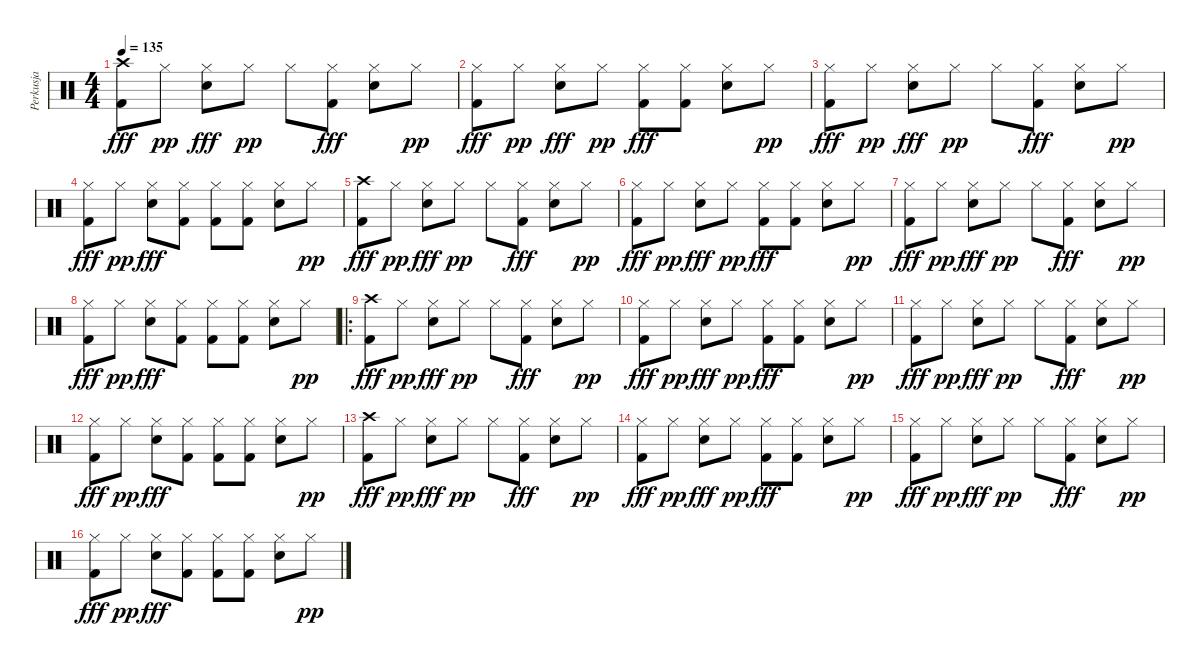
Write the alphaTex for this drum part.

\track ("Perkusja" "Perkusja") {instrument percussion}
\staff {score}
\articulation defaults
\ts (4 4)
\tempo 135
\clef neutral
\ks c
("Crash high (hit)" "Kick (hit) 2").8{dy fff} "Hi-Hat (closed)".8{dy pp} ("Hi-Hat (closed)" "Electric Snare (hit)").8{dy fff} "Hi-Hat (closed)".8{dy pp} "Hi-Hat (closed)".8 ("Hi-Hat (closed)" "Kick (hit) 2").8{dy fff} ("Hi-Hat (closed)" "Electric Snare (hit)").8 "Hi-Hat (closed)".8{dy pp} |
("Hi-Hat (closed)" "Kick (hit) 2").8{dy fff} "Hi-Hat (closed)".8{dy pp} ("Hi-Hat (closed)" "Electric Snare (hit)").8{dy fff} "Hi-Hat (closed)".8{dy pp} ("Hi-Hat (closed)" "Kick (hit) 2").8{dy fff} ("Hi-Hat (closed)" "Kick (hit) 2").8 ("Hi-Hat (closed)" "Electric Snare (hit)").8 "Hi-Hat (closed)".8{dy pp} |
("Hi-Hat (closed)" "Kick (hit) 2").8{dy fff} "Hi-Hat (closed)".8{dy pp} ("Hi-Hat (closed)" "Electric Snare (hit)").8{dy fff} "Hi-Hat (closed)".8{dy pp} "Hi-Hat (closed)".8 ("Hi-Hat (closed)" "Kick (hit) 2").8{dy fff} ("Hi-Hat (closed)" "Electric Snare (hit)").8 "Hi-Hat (closed)".8{dy pp} |
("Hi-Hat (closed)" "Kick (hit) 2").8{dy fff} "Hi-Hat (closed)".8{dy pp} ("Hi-Hat (closed)" "Electric Snare (hit)").8{dy fff} ("Hi-Hat (closed)" "Kick (hit) 2").8 ("Hi-Hat (closed)" "Kick (hit) 2").8 ("Hi-Hat (closed)" "Kick (hit) 2").8 ("Hi-Hat (closed)" "Electric Snare (hit)").8 "Hi-Hat (closed)".8{dy pp} |
("Crash high (hit)" "Kick (hit) 2").8{dy fff} "Hi-Hat (closed)".8{dy pp} ("Hi-Hat (closed)" "Electric Snare (hit)").8{dy fff} "Hi-Hat (closed)".8{dy pp} "Hi-Hat (closed)".8 ("Hi-Hat (closed)" "Kick (hit) 2").8{dy fff} ("Hi-Hat (closed)" "Electric Snare (hit)").8 "Hi-Hat (closed)".8{dy pp} |
("Hi-Hat (closed)" "Kick (hit) 2").8{dy fff} "Hi-Hat (closed)".8{dy pp} ("Hi-Hat (closed)" "Electric Snare (hit)").8{dy fff} "Hi-Hat (closed)".8{dy pp} ("Hi-Hat (closed)" "Kick (hit) 2").8{dy fff} ("Hi-Hat (closed)" "Kick (hit) 2").8 ("Hi-Hat (closed)" "Electric Snare (hit)").8 "Hi-Hat (closed)".8{dy pp} |
("Hi-Hat (closed)" "Kick (hit) 2").8{dy fff} "Hi-Hat (closed)".8{dy pp} ("Hi-Hat (closed)" "Electric Snare (hit)").8{dy fff} "Hi-Hat (closed)".8{dy pp} "Hi-Hat (closed)".8 ("Hi-Hat (closed)" "Kick (hit) 2").8{dy fff} ("Hi-Hat (closed)" "Electric Snare (hit)").8 "Hi-Hat (closed)".8{dy pp} |
("Hi-Hat (closed)" "Kick (hit) 2").8{dy fff} "Hi-Hat (closed)".8{dy pp} ("Hi-Hat (closed)" "Electric Snare (hit)").8{dy fff} ("Hi-Hat (closed)" "Kick (hit) 2").8 ("Hi-Hat (closed)" "Kick (hit) 2").8 ("Hi-Hat (closed)" "Kick (hit) 2").8 ("Hi-Hat (closed)" "Electric Snare (hit)").8 "Hi-Hat (closed)".8{dy pp} |
\ro
("Crash high (hit)" "Kick (hit) 2").8{dy fff} "Hi-Hat (closed)".8{dy pp} ("Hi-Hat (closed)" "Electric Snare (hit)").8{dy fff} "Hi-Hat (closed)".8{dy pp} "Hi-Hat (closed)".8 ("Hi-Hat (closed)" "Kick (hit) 2").8{dy fff} ("Hi-Hat (closed)" "Electric Snare (hit)").8 "Hi-Hat (closed)".8{dy pp} |
("Hi-Hat (closed)" "Kick (hit) 2").8{dy fff} "Hi-Hat (closed)".8{dy pp} ("Hi-Hat (closed)" "Electric Snare (hit)").8{dy fff} "Hi-Hat (closed)".8{dy pp} ("Hi-Hat (closed)" "Kick (hit) 2").8{dy fff} ("Hi-Hat (closed)" "Kick (hit) 2").8 ("Hi-Hat (closed)" "Electric Snare (hit)").8 "Hi-Hat (closed)".8{dy pp} |
("Hi-Hat (closed)" "Kick (hit) 2").8{dy fff} "Hi-Hat (closed)".8{dy pp} ("Hi-Hat (closed)" "Electric Snare (hit)").8{dy fff} "Hi-Hat (closed)".8{dy pp} "Hi-Hat (closed)".8 ("Hi-Hat (closed)" "Kick (hit) 2").8{dy fff} ("Hi-Hat (closed)" "Electric Snare (hit)").8 "Hi-Hat (closed)".8{dy pp} |
("Hi-Hat (closed)" "Kick (hit) 2").8{dy fff} "Hi-Hat (closed)".8{dy pp} ("Hi-Hat (closed)" "Electric Snare (hit)").8{dy fff} ("Hi-Hat (closed)" "Kick (hit) 2").8 ("Hi-Hat (closed)" "Kick (hit) 2").8 ("Hi-Hat (closed)" "Kick (hit) 2").8 ("Hi-Hat (closed)" "Electric Snare (hit)").8 "Hi-Hat (closed)".8{dy pp} |
("Crash high (hit)" "Kick (hit) 2").8{dy fff} "Hi-Hat (closed)".8{dy pp} ("Hi-Hat (closed)" "Electric Snare (hit)").8{dy fff} "Hi-Hat (closed)".8{dy pp} "Hi-Hat (closed)".8 ("Hi-Hat (closed)" "Kick (hit) 2").8{dy fff} ("Hi-Hat (closed)" "Electric Snare (hit)").8 "Hi-Hat (closed)".8{dy pp} |
("Hi-Hat (closed)" "Kick (hit) 2").8{dy fff} "Hi-Hat (closed)".8{dy pp} ("Hi-Hat (closed)" "Electric Snare (hit)").8{dy fff} "Hi-Hat (closed)".8{dy pp} ("Hi-Hat (closed)" "Kick (hit) 2").8{dy fff} ("Hi-Hat (closed)" "Kick (hit) 2").8 ("Hi-Hat (closed)" "Electric Snare (hit)").8 "Hi-Hat (closed)".8{dy pp} |
("Hi-Hat (closed)" "Kick (hit) 2").8{dy fff} "Hi-Hat (closed)".8{dy pp} ("Hi-Hat (closed)" "Electric Snare (hit)").8{dy fff} "Hi-Hat (closed)".8{dy pp} "Hi-Hat (closed)".8 ("Hi-Hat (closed)" "Kick (hit) 2").8{dy fff} ("Hi-Hat (closed)" "Electric Snare (hit)").8 "Hi-Hat (closed)".8{dy pp} |
("Hi-Hat (closed)" "Kick (hit) 2").8{dy fff} "Hi-Hat (closed)".8{dy pp} ("Hi-Hat (closed)" "Electric Snare (hit)").8{dy fff} ("Hi-Hat (closed)" "Kick (hit) 2").8 ("Hi-Hat (closed)" "Kick (hit) 2").8 ("Hi-Hat (closed)" "Kick (hit) 2").8 ("Hi-Hat (closed)" "Electric Snare (hit)").8 "Hi-Hat (closed)".8{dy pp}
